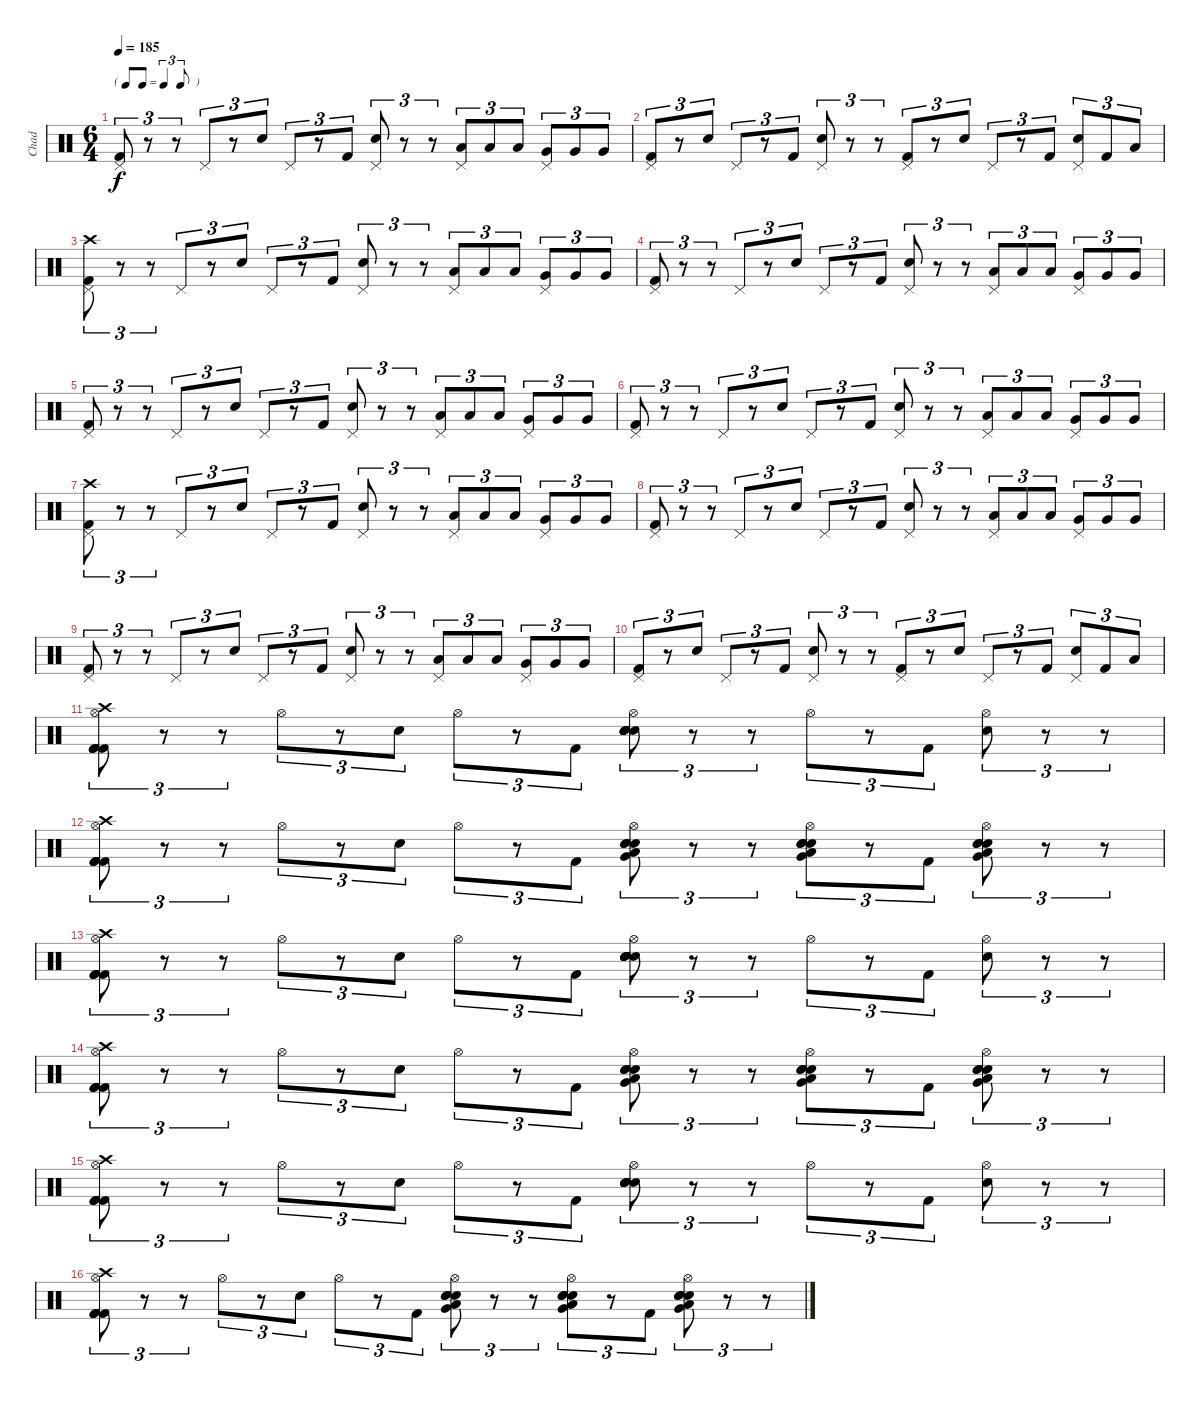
\track ("Chad" "Chad") {instrument percussion}
\staff {score}
\articulation defaults
\ts (6 4)
\tf triplet8th
\tempo 185
\clef neutral
\ks c
("Kick (hit) 2" "Pedal Hi-Hat (hit)").8{tu (3 2) dy f} r.8{tu (3 2)} r.8{tu (3 2)} "Pedal Hi-Hat (hit)".8{tu (3 2)} r.8{tu (3 2)} "Electric Snare (hit)".8{tu (3 2)} "Pedal Hi-Hat (hit)".8{tu (3 2)} r.8{tu (3 2)} "Kick (hit) 2".8{tu (3 2)} ("Electric Snare (hit)" "Pedal Hi-Hat (hit)").8{tu (3 2)} r.8{tu (3 2)} r.8{tu (3 2)} ("Low Tom (hit)" "Pedal Hi-Hat (hit)").8{tu (3 2)} "Low Tom (hit)".8{tu (3 2)} "Low Tom (hit)".8{tu (3 2)} ("Very Low Tom (hit)" "Pedal Hi-Hat (hit)").8{tu (3 2)} "Very Low Tom (hit)".8{tu (3 2)} "Very Low Tom (hit)".8{tu (3 2)} |
("Kick (hit) 2" "Pedal Hi-Hat (hit)").8{tu (3 2)} r.8{tu (3 2)} "Electric Snare (hit)".8{tu (3 2)} "Pedal Hi-Hat (hit)".8{tu (3 2)} r.8{tu (3 2)} "Kick (hit) 2".8{tu (3 2)} ("Electric Snare (hit)" "Pedal Hi-Hat (hit)").8{tu (3 2)} r.8{tu (3 2)} r.8{tu (3 2)} ("Kick (hit) 2" "Pedal Hi-Hat (hit)").8{tu (3 2)} r.8{tu (3 2)} "Electric Snare (hit)".8{tu (3 2)} "Pedal Hi-Hat (hit)".8{tu (3 2)} r.8{tu (3 2)} "Kick (hit) 2".8{tu (3 2)} ("Electric Snare (hit)" "Pedal Hi-Hat (hit)").8{tu (3 2)} "Kick (hit) 2".8{tu (3 2)} "Low Tom (hit)".8{tu (3 2)} |
("Kick (hit) 2" "Pedal Hi-Hat (hit)" "Crash high (hit)").8{tu (3 2)} r.8{tu (3 2)} r.8{tu (3 2)} "Pedal Hi-Hat (hit)".8{tu (3 2)} r.8{tu (3 2)} "Electric Snare (hit)".8{tu (3 2)} "Pedal Hi-Hat (hit)".8{tu (3 2)} r.8{tu (3 2)} "Kick (hit) 2".8{tu (3 2)} ("Electric Snare (hit)" "Pedal Hi-Hat (hit)").8{tu (3 2)} r.8{tu (3 2)} r.8{tu (3 2)} ("Low Tom (hit)" "Pedal Hi-Hat (hit)").8{tu (3 2)} "Low Tom (hit)".8{tu (3 2)} "Low Tom (hit)".8{tu (3 2)} ("Very Low Tom (hit)" "Pedal Hi-Hat (hit)").8{tu (3 2)} "Very Low Tom (hit)".8{tu (3 2)} "Very Low Tom (hit)".8{tu (3 2)} |
("Kick (hit) 2" "Pedal Hi-Hat (hit)").8{tu (3 2)} r.8{tu (3 2)} r.8{tu (3 2)} "Pedal Hi-Hat (hit)".8{tu (3 2)} r.8{tu (3 2)} "Electric Snare (hit)".8{tu (3 2)} "Pedal Hi-Hat (hit)".8{tu (3 2)} r.8{tu (3 2)} "Kick (hit) 2".8{tu (3 2)} ("Electric Snare (hit)" "Pedal Hi-Hat (hit)").8{tu (3 2)} r.8{tu (3 2)} r.8{tu (3 2)} ("Low Tom (hit)" "Pedal Hi-Hat (hit)").8{tu (3 2)} "Low Tom (hit)".8{tu (3 2)} "Low Tom (hit)".8{tu (3 2)} ("Very Low Tom (hit)" "Pedal Hi-Hat (hit)").8{tu (3 2)} "Very Low Tom (hit)".8{tu (3 2)} "Very Low Tom (hit)".8{tu (3 2)} |
("Kick (hit) 2" "Pedal Hi-Hat (hit)").8{tu (3 2)} r.8{tu (3 2)} r.8{tu (3 2)} "Pedal Hi-Hat (hit)".8{tu (3 2)} r.8{tu (3 2)} "Electric Snare (hit)".8{tu (3 2)} "Pedal Hi-Hat (hit)".8{tu (3 2)} r.8{tu (3 2)} "Kick (hit) 2".8{tu (3 2)} ("Electric Snare (hit)" "Pedal Hi-Hat (hit)").8{tu (3 2)} r.8{tu (3 2)} r.8{tu (3 2)} ("Low Tom (hit)" "Pedal Hi-Hat (hit)").8{tu (3 2)} "Low Tom (hit)".8{tu (3 2)} "Low Tom (hit)".8{tu (3 2)} ("Very Low Tom (hit)" "Pedal Hi-Hat (hit)").8{tu (3 2)} "Very Low Tom (hit)".8{tu (3 2)} "Very Low Tom (hit)".8{tu (3 2)} |
("Kick (hit) 2" "Pedal Hi-Hat (hit)").8{tu (3 2)} r.8{tu (3 2)} r.8{tu (3 2)} "Pedal Hi-Hat (hit)".8{tu (3 2)} r.8{tu (3 2)} "Electric Snare (hit)".8{tu (3 2)} "Pedal Hi-Hat (hit)".8{tu (3 2)} r.8{tu (3 2)} "Kick (hit) 2".8{tu (3 2)} ("Electric Snare (hit)" "Pedal Hi-Hat (hit)").8{tu (3 2)} r.8{tu (3 2)} r.8{tu (3 2)} ("Low Tom (hit)" "Pedal Hi-Hat (hit)").8{tu (3 2)} "Low Tom (hit)".8{tu (3 2)} "Low Tom (hit)".8{tu (3 2)} ("Very Low Tom (hit)" "Pedal Hi-Hat (hit)").8{tu (3 2)} "Very Low Tom (hit)".8{tu (3 2)} "Very Low Tom (hit)".8{tu (3 2)} |
("Kick (hit) 2" "Pedal Hi-Hat (hit)" "Crash high (hit)").8{tu (3 2)} r.8{tu (3 2)} r.8{tu (3 2)} "Pedal Hi-Hat (hit)".8{tu (3 2)} r.8{tu (3 2)} "Electric Snare (hit)".8{tu (3 2)} "Pedal Hi-Hat (hit)".8{tu (3 2)} r.8{tu (3 2)} "Kick (hit) 2".8{tu (3 2)} ("Electric Snare (hit)" "Pedal Hi-Hat (hit)").8{tu (3 2)} r.8{tu (3 2)} r.8{tu (3 2)} ("Low Tom (hit)" "Pedal Hi-Hat (hit)").8{tu (3 2)} "Low Tom (hit)".8{tu (3 2)} "Low Tom (hit)".8{tu (3 2)} ("Very Low Tom (hit)" "Pedal Hi-Hat (hit)").8{tu (3 2)} "Very Low Tom (hit)".8{tu (3 2)} "Very Low Tom (hit)".8{tu (3 2)} |
("Kick (hit) 2" "Pedal Hi-Hat (hit)").8{tu (3 2)} r.8{tu (3 2)} r.8{tu (3 2)} "Pedal Hi-Hat (hit)".8{tu (3 2)} r.8{tu (3 2)} "Electric Snare (hit)".8{tu (3 2)} "Pedal Hi-Hat (hit)".8{tu (3 2)} r.8{tu (3 2)} "Kick (hit) 2".8{tu (3 2)} ("Electric Snare (hit)" "Pedal Hi-Hat (hit)").8{tu (3 2)} r.8{tu (3 2)} r.8{tu (3 2)} ("Low Tom (hit)" "Pedal Hi-Hat (hit)").8{tu (3 2)} "Low Tom (hit)".8{tu (3 2)} "Low Tom (hit)".8{tu (3 2)} ("Very Low Tom (hit)" "Pedal Hi-Hat (hit)").8{tu (3 2)} "Very Low Tom (hit)".8{tu (3 2)} "Very Low Tom (hit)".8{tu (3 2)} |
("Kick (hit) 2" "Pedal Hi-Hat (hit)").8{tu (3 2)} r.8{tu (3 2)} r.8{tu (3 2)} "Pedal Hi-Hat (hit)".8{tu (3 2)} r.8{tu (3 2)} "Electric Snare (hit)".8{tu (3 2)} "Pedal Hi-Hat (hit)".8{tu (3 2)} r.8{tu (3 2)} "Kick (hit) 2".8{tu (3 2)} ("Electric Snare (hit)" "Pedal Hi-Hat (hit)").8{tu (3 2)} r.8{tu (3 2)} r.8{tu (3 2)} ("Low Tom (hit)" "Pedal Hi-Hat (hit)").8{tu (3 2)} "Low Tom (hit)".8{tu (3 2)} "Low Tom (hit)".8{tu (3 2)} ("Very Low Tom (hit)" "Pedal Hi-Hat (hit)").8{tu (3 2)} "Very Low Tom (hit)".8{tu (3 2)} "Very Low Tom (hit)".8{tu (3 2)} |
("Kick (hit) 2" "Pedal Hi-Hat (hit)").8{tu (3 2)} r.8{tu (3 2)} "Electric Snare (hit)".8{tu (3 2)} "Pedal Hi-Hat (hit)".8{tu (3 2)} r.8{tu (3 2)} "Kick (hit) 2".8{tu (3 2)} ("Electric Snare (hit)" "Pedal Hi-Hat (hit)").8{tu (3 2)} r.8{tu (3 2)} r.8{tu (3 2)} ("Kick (hit) 2" "Pedal Hi-Hat (hit)").8{tu (3 2)} r.8{tu (3 2)} "Electric Snare (hit)".8{tu (3 2)} "Pedal Hi-Hat (hit)".8{tu (3 2)} r.8{tu (3 2)} "Kick (hit) 2".8{tu (3 2)} ("Electric Snare (hit)" "Pedal Hi-Hat (hit)").8{tu (3 2)} "Kick (hit) 2".8{tu (3 2)} "Low Tom (hit)".8{tu (3 2)} |
("Crash high (hit)" "Hi-Hat (open)" "Kick (hit) 2" "Kick (hit) 2" "Kick (hit) 2" "Kick (hit) 2").8{tu (3 2)} r.8{tu (3 2)} r.8{tu (3 2)} "Hi-Hat (open)".8{tu (3 2)} r.8{tu (3 2)} "Electric Snare (hit)".8{tu (3 2)} "Hi-Hat (open)".8{tu (3 2)} r.8{tu (3 2)} "Kick (hit) 2".8{tu (3 2)} ("Electric Snare (hit)" "Hi-Hat (open)" "Electric Snare (hit)" "Electric Snare (hit)" "Electric Snare (hit)" "Electric Snare (hit)").8{tu (3 2)} r.8{tu (3 2)} r.8{tu (3 2)} "Hi-Hat (open)".8{tu (3 2)} r.8{tu (3 2)} "Kick (hit) 2".8{tu (3 2)} ("Electric Snare (hit)" "Hi-Hat (open)").8{tu (3 2)} r.8{tu (3 2)} r.8{tu (3 2)} |
("Crash high (hit)" "Hi-Hat (open)" "Kick (hit) 2" "Kick (hit) 2" "Kick (hit) 2" "Kick (hit) 2").8{tu (3 2)} r.8{tu (3 2)} r.8{tu (3 2)} "Hi-Hat (open)".8{tu (3 2)} r.8{tu (3 2)} "Electric Snare (hit)".8{tu (3 2)} "Hi-Hat (open)".8{tu (3 2)} r.8{tu (3 2)} "Kick (hit) 2".8{tu (3 2)} ("Electric Snare (hit)" "Hi-Hat (open)" "Electric Snare (hit)" "Electric Snare (hit)" "Very Low Tom (hit)" "Low Tom (hit)").8{tu (3 2)} r.8{tu (3 2)} r.8{tu (3 2)} ("Electric Snare (hit)" "Hi-Hat (open)" "Electric Snare (hit)" "Electric Snare (hit)" "Very Low Tom (hit)" "Low Tom (hit)").8{tu (3 2)} r.8{tu (3 2)} "Kick (hit) 2".8{tu (3 2)} ("Electric Snare (hit)" "Hi-Hat (open)" "Electric Snare (hit)" "Electric Snare (hit)" "Very Low Tom (hit)" "Low Tom (hit)").8{tu (3 2)} r.8{tu (3 2)} r.8{tu (3 2)} |
("Crash high (hit)" "Hi-Hat (open)" "Kick (hit) 2" "Kick (hit) 2" "Kick (hit) 2" "Kick (hit) 2").8{tu (3 2)} r.8{tu (3 2)} r.8{tu (3 2)} "Hi-Hat (open)".8{tu (3 2)} r.8{tu (3 2)} "Electric Snare (hit)".8{tu (3 2)} "Hi-Hat (open)".8{tu (3 2)} r.8{tu (3 2)} "Kick (hit) 2".8{tu (3 2)} ("Electric Snare (hit)" "Hi-Hat (open)" "Electric Snare (hit)" "Electric Snare (hit)" "Electric Snare (hit)" "Electric Snare (hit)").8{tu (3 2)} r.8{tu (3 2)} r.8{tu (3 2)} "Hi-Hat (open)".8{tu (3 2)} r.8{tu (3 2)} "Kick (hit) 2".8{tu (3 2)} ("Electric Snare (hit)" "Hi-Hat (open)").8{tu (3 2)} r.8{tu (3 2)} r.8{tu (3 2)} |
("Crash high (hit)" "Hi-Hat (open)" "Kick (hit) 2" "Kick (hit) 2" "Kick (hit) 2" "Kick (hit) 2").8{tu (3 2)} r.8{tu (3 2)} r.8{tu (3 2)} "Hi-Hat (open)".8{tu (3 2)} r.8{tu (3 2)} "Electric Snare (hit)".8{tu (3 2)} "Hi-Hat (open)".8{tu (3 2)} r.8{tu (3 2)} "Kick (hit) 2".8{tu (3 2)} ("Electric Snare (hit)" "Hi-Hat (open)" "Electric Snare (hit)" "Electric Snare (hit)" "Very Low Tom (hit)" "Low Tom (hit)").8{tu (3 2)} r.8{tu (3 2)} r.8{tu (3 2)} ("Electric Snare (hit)" "Hi-Hat (open)" "Electric Snare (hit)" "Electric Snare (hit)" "Very Low Tom (hit)" "Low Tom (hit)").8{tu (3 2)} r.8{tu (3 2)} "Kick (hit) 2".8{tu (3 2)} ("Electric Snare (hit)" "Hi-Hat (open)" "Electric Snare (hit)" "Electric Snare (hit)" "Very Low Tom (hit)" "Low Tom (hit)").8{tu (3 2)} r.8{tu (3 2)} r.8{tu (3 2)} |
("Crash high (hit)" "Hi-Hat (open)" "Kick (hit) 2" "Kick (hit) 2" "Kick (hit) 2" "Kick (hit) 2").8{tu (3 2)} r.8{tu (3 2)} r.8{tu (3 2)} "Hi-Hat (open)".8{tu (3 2)} r.8{tu (3 2)} "Electric Snare (hit)".8{tu (3 2)} "Hi-Hat (open)".8{tu (3 2)} r.8{tu (3 2)} "Kick (hit) 2".8{tu (3 2)} ("Electric Snare (hit)" "Hi-Hat (open)" "Electric Snare (hit)" "Electric Snare (hit)" "Electric Snare (hit)" "Electric Snare (hit)").8{tu (3 2)} r.8{tu (3 2)} r.8{tu (3 2)} "Hi-Hat (open)".8{tu (3 2)} r.8{tu (3 2)} "Kick (hit) 2".8{tu (3 2)} ("Electric Snare (hit)" "Hi-Hat (open)").8{tu (3 2)} r.8{tu (3 2)} r.8{tu (3 2)} |
("Crash high (hit)" "Hi-Hat (open)" "Kick (hit) 2" "Kick (hit) 2" "Kick (hit) 2" "Kick (hit) 2").8{tu (3 2)} r.8{tu (3 2)} r.8{tu (3 2)} "Hi-Hat (open)".8{tu (3 2)} r.8{tu (3 2)} "Electric Snare (hit)".8{tu (3 2)} "Hi-Hat (open)".8{tu (3 2)} r.8{tu (3 2)} "Kick (hit) 2".8{tu (3 2)} ("Electric Snare (hit)" "Hi-Hat (open)" "Electric Snare (hit)" "Electric Snare (hit)" "Very Low Tom (hit)" "Low Tom (hit)").8{tu (3 2)} r.8{tu (3 2)} r.8{tu (3 2)} ("Electric Snare (hit)" "Hi-Hat (open)" "Electric Snare (hit)" "Electric Snare (hit)" "Very Low Tom (hit)" "Low Tom (hit)").8{tu (3 2)} r.8{tu (3 2)} "Kick (hit) 2".8{tu (3 2)} ("Electric Snare (hit)" "Hi-Hat (open)" "Electric Snare (hit)" "Electric Snare (hit)" "Very Low Tom (hit)" "Low Tom (hit)").8{tu (3 2)} r.8{tu (3 2)} r.8{tu (3 2)}
